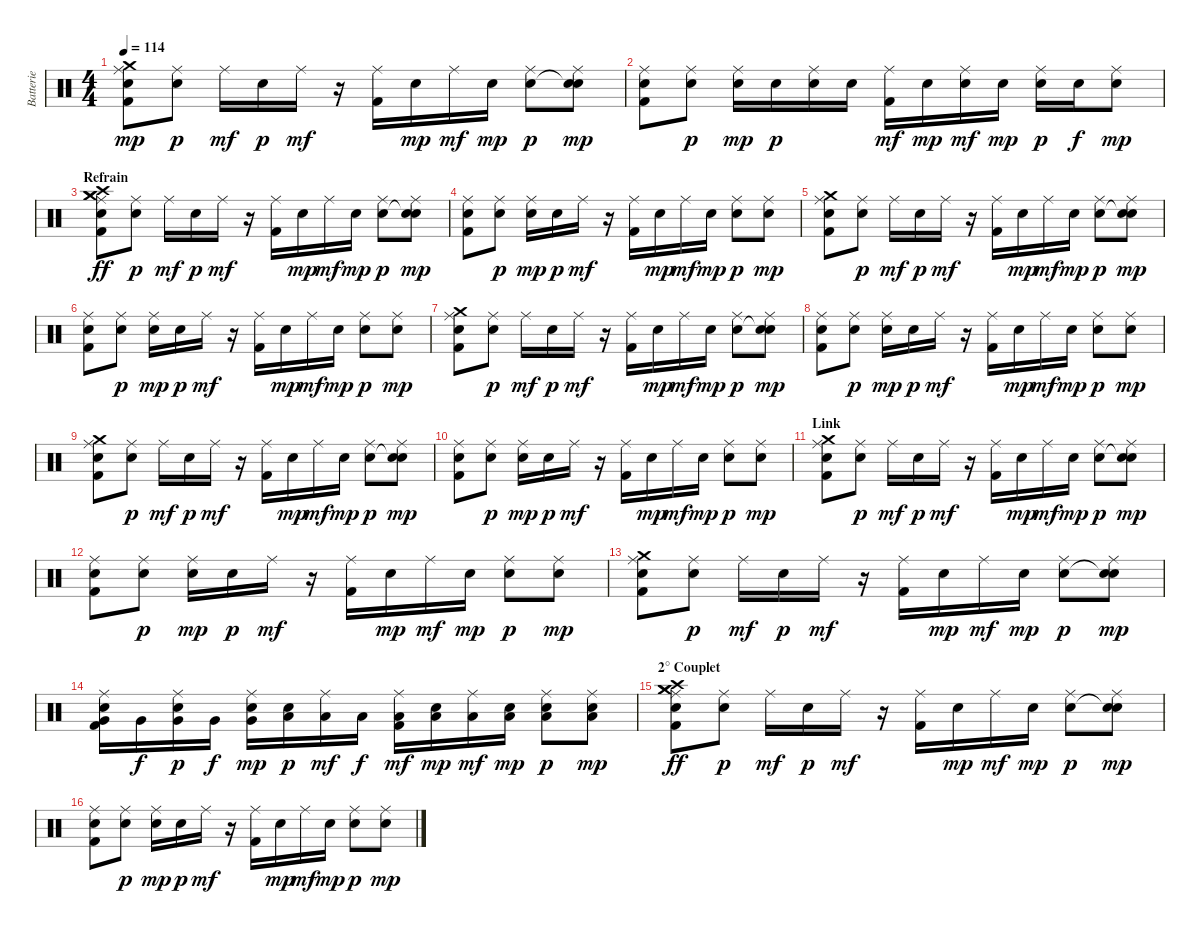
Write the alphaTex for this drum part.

\track ("Batterie" "Batterie") {instrument percussion}
\staff {score}
\articulation defaults
\ts (4 4)
\tempo 114
\clef neutral
\ks c
("Ride (middle)" "Crash medium (hit)" "Kick (hit) 2" "Snare (hit) 2").8{dy mp} ("Ride (middle)" "Snare (hit) 2").8{dy p} "Ride (middle)".16{dy mf} "Snare (hit) 2".16{dy p} "Ride (middle)".16{dy mf} r.16 ("Ride (middle)" "Kick (hit) 2").16 "Snare (hit) 2".16{dy mp} "Ride (middle)".16{dy mf} "Snare (hit) 2".16{dy mp} ("Ride (middle)" "Snare (hit) 2").8{dy p} ("Ride (middle)" "Snare (hit)"{t} "Snare (hit) 2").8{dy mp} |
("Ride (middle)" "Kick (hit) 2" "Snare (hit) 2").8 ("Ride (middle)" "Snare (hit) 2").8{dy p} ("Ride (middle)" "Snare (hit) 2").16{dy mp} "Snare (hit) 2".16{dy p} ("Ride (middle)" "Snare (hit) 2").16 "Snare (hit) 2".16 ("Ride (middle)" "Kick (hit) 2").16{dy mf} "Snare (hit) 2".16{dy mp} ("Ride (middle)" "Snare (hit) 2").16{dy mf} "Snare (hit) 2".16{dy mp} ("Ride (middle)" "Snare (hit) 2").16{dy p} "Snare (hit) 2".16{dy f} ("Ride (middle)" "Snare (hit) 2").8{dy mp} |
\section ("" "Refrain")
("Ride (middle)" "Crash medium (hit)" "Kick (hit) 2" "Snare (hit) 2" "Crash high (hit)" "Crash medium (hit)").8{dy ff} ("Ride (middle)" "Snare (hit) 2").8{dy p} "Ride (middle)".16{dy mf} "Snare (hit) 2".16{dy p} "Ride (middle)".16{dy mf} r.16 ("Ride (middle)" "Kick (hit) 2").16 "Snare (hit) 2".16{dy mp} "Ride (middle)".16{dy mf} "Snare (hit) 2".16{dy mp} ("Ride (middle)" "Snare (hit) 2").8{dy p} ("Ride (middle)" "Snare (hit)"{t} "Snare (hit) 2").8{dy mp} |
("Ride (middle)" "Kick (hit) 2" "Snare (hit) 2").8 ("Ride (middle)" "Snare (hit) 2").8{dy p} ("Ride (middle)" "Snare (hit) 2").16{dy mp} "Snare (hit) 2".16{dy p} "Ride (middle)".16{dy mf} r.16 ("Ride (middle)" "Kick (hit) 2").16 "Snare (hit) 2".16{dy mp} "Ride (middle)".16{dy mf} "Snare (hit) 2".16{dy mp} ("Ride (middle)" "Snare (hit) 2").8{dy p} ("Ride (middle)" "Snare (hit) 2").8{dy mp} |
("Ride (middle)" "Crash medium (hit)" "Kick (hit) 2" "Snare (hit) 2").8 ("Ride (middle)" "Snare (hit) 2").8{dy p} "Ride (middle)".16{dy mf} "Snare (hit) 2".16{dy p} "Ride (middle)".16{dy mf} r.16 ("Ride (middle)" "Kick (hit) 2").16 "Snare (hit) 2".16{dy mp} "Ride (middle)".16{dy mf} "Snare (hit) 2".16{dy mp} ("Ride (middle)" "Snare (hit) 2").8{dy p} ("Ride (middle)" "Snare (hit)"{t} "Snare (hit) 2").8{dy mp} |
("Ride (middle)" "Kick (hit) 2" "Snare (hit) 2").8 ("Ride (middle)" "Snare (hit) 2").8{dy p} ("Ride (middle)" "Snare (hit) 2").16{dy mp} "Snare (hit) 2".16{dy p} "Ride (middle)".16{dy mf} r.16 ("Ride (middle)" "Kick (hit) 2").16 "Snare (hit) 2".16{dy mp} "Ride (middle)".16{dy mf} "Snare (hit) 2".16{dy mp} ("Ride (middle)" "Snare (hit) 2").8{dy p} ("Ride (middle)" "Snare (hit) 2").8{dy mp} |
("Ride (middle)" "Crash medium (hit)" "Kick (hit) 2" "Snare (hit) 2").8 ("Ride (middle)" "Snare (hit) 2").8{dy p} "Ride (middle)".16{dy mf} "Snare (hit) 2".16{dy p} "Ride (middle)".16{dy mf} r.16 ("Ride (middle)" "Kick (hit) 2").16 "Snare (hit) 2".16{dy mp} "Ride (middle)".16{dy mf} "Snare (hit) 2".16{dy mp} ("Ride (middle)" "Snare (hit) 2").8{dy p} ("Ride (middle)" "Snare (hit)"{t} "Snare (hit) 2").8{dy mp} |
("Ride (middle)" "Kick (hit) 2" "Snare (hit) 2").8 ("Ride (middle)" "Snare (hit) 2").8{dy p} ("Ride (middle)" "Snare (hit) 2").16{dy mp} "Snare (hit) 2".16{dy p} "Ride (middle)".16{dy mf} r.16 ("Ride (middle)" "Kick (hit) 2").16 "Snare (hit) 2".16{dy mp} "Ride (middle)".16{dy mf} "Snare (hit) 2".16{dy mp} ("Ride (middle)" "Snare (hit) 2").8{dy p} ("Ride (middle)" "Snare (hit) 2").8{dy mp} |
("Ride (middle)" "Crash medium (hit)" "Kick (hit) 2" "Snare (hit) 2").8 ("Ride (middle)" "Snare (hit) 2").8{dy p} "Ride (middle)".16{dy mf} "Snare (hit) 2".16{dy p} "Ride (middle)".16{dy mf} r.16 ("Ride (middle)" "Kick (hit) 2").16 "Snare (hit) 2".16{dy mp} "Ride (middle)".16{dy mf} "Snare (hit) 2".16{dy mp} ("Ride (middle)" "Snare (hit) 2").8{dy p} ("Ride (middle)" "Snare (hit)"{t} "Snare (hit) 2").8{dy mp} |
("Ride (middle)" "Kick (hit) 2" "Snare (hit) 2").8 ("Ride (middle)" "Snare (hit) 2").8{dy p} ("Ride (middle)" "Snare (hit) 2").16{dy mp} "Snare (hit) 2".16{dy p} "Ride (middle)".16{dy mf} r.16 ("Ride (middle)" "Kick (hit) 2").16 "Snare (hit) 2".16{dy mp} "Ride (middle)".16{dy mf} "Snare (hit) 2".16{dy mp} ("Ride (middle)" "Snare (hit) 2").8{dy p} ("Ride (middle)" "Snare (hit) 2").8{dy mp} |
\section ("" "Link")
("Ride (middle)" "Crash medium (hit)" "Kick (hit) 2" "Snare (hit) 2").8 ("Ride (middle)" "Snare (hit) 2").8{dy p} "Ride (middle)".16{dy mf} "Snare (hit) 2".16{dy p} "Ride (middle)".16{dy mf} r.16 ("Ride (middle)" "Kick (hit) 2").16 "Snare (hit) 2".16{dy mp} "Ride (middle)".16{dy mf} "Snare (hit) 2".16{dy mp} ("Ride (middle)" "Snare (hit) 2").8{dy p} ("Ride (middle)" "Snare (hit)"{t} "Snare (hit) 2").8{dy mp} |
("Ride (middle)" "Kick (hit) 2" "Snare (hit) 2").8 ("Ride (middle)" "Snare (hit) 2").8{dy p} ("Ride (middle)" "Snare (hit) 2").16{dy mp} "Snare (hit) 2".16{dy p} "Ride (middle)".16{dy mf} r.16 ("Ride (middle)" "Kick (hit) 2").16 "Snare (hit) 2".16{dy mp} "Ride (middle)".16{dy mf} "Snare (hit) 2".16{dy mp} ("Ride (middle)" "Snare (hit) 2").8{dy p} ("Ride (middle)" "Snare (hit) 2").8{dy mp} |
("Ride (middle)" "Crash medium (hit)" "Kick (hit) 2" "Snare (hit) 2").8 ("Ride (middle)" "Snare (hit) 2").8{dy p} "Ride (middle)".16{dy mf} "Snare (hit) 2".16{dy p} "Ride (middle)".16{dy mf} r.16 ("Ride (middle)" "Kick (hit) 2").16 "Snare (hit) 2".16{dy mp} "Ride (middle)".16{dy mf} "Snare (hit) 2".16{dy mp} ("Ride (middle)" "Snare (hit) 2").8{dy p} ("Ride (middle)" "Snare (hit)"{t} "Snare (hit) 2").8{dy mp} |
("Ride (middle)" "Kick (hit) 2" "Snare (hit) 2" "Very Low Tom (hit)").16 "Very Low Tom (hit)".16{dy f} ("Ride (middle)" "Snare (hit) 2" "Very Low Tom (hit)").16{dy p} "Very Low Tom (hit)".16{dy f} ("Ride (middle)" "Snare (hit) 2" "Very Low Tom (hit)").16{dy mp} ("Snare (hit) 2" "Low Floor Tom (hit)").16{dy p} ("Ride (middle)" "Low Floor Tom (hit)").16{dy mf} "Low Floor Tom (hit)".16{dy f} ("Ride (middle)" "Kick (hit) 2" "Low Floor Tom (hit)").16{dy mf} ("Snare (hit) 2" "Low Floor Tom (hit)").16{dy mp} ("Ride (middle)" "Low Tom (hit)").16{dy mf} ("Snare (hit) 2" "Low Tom (hit)").16{dy mp} ("Ride (middle)" "Snare (hit) 2" "Low Tom (hit)").8{dy p} ("Ride (middle)" "Snare (hit) 2" "Low Tom (hit)").8{dy mp} |
\section ("" "2° Couplet")
("Ride (middle)" "Crash medium (hit)" "Kick (hit) 2" "Snare (hit) 2" "Crash medium (hit)" "Crash high (hit)").8{dy ff} ("Ride (middle)" "Snare (hit) 2").8{dy p} "Ride (middle)".16{dy mf} "Snare (hit) 2".16{dy p} "Ride (middle)".16{dy mf} r.16 ("Ride (middle)" "Kick (hit) 2").16 "Snare (hit) 2".16{dy mp} "Ride (middle)".16{dy mf} "Snare (hit) 2".16{dy mp} ("Ride (middle)" "Snare (hit) 2").8{dy p} ("Ride (middle)" "Snare (hit)"{t} "Snare (hit) 2").8{dy mp} |
("Ride (middle)" "Kick (hit) 2" "Snare (hit) 2").8 ("Ride (middle)" "Snare (hit) 2").8{dy p} ("Ride (middle)" "Snare (hit) 2").16{dy mp} "Snare (hit) 2".16{dy p} "Ride (middle)".16{dy mf} r.16 ("Ride (middle)" "Kick (hit) 2").16 "Snare (hit) 2".16{dy mp} "Ride (middle)".16{dy mf} "Snare (hit) 2".16{dy mp} ("Ride (middle)" "Snare (hit) 2").8{dy p} ("Ride (middle)" "Snare (hit) 2").8{dy mp}
